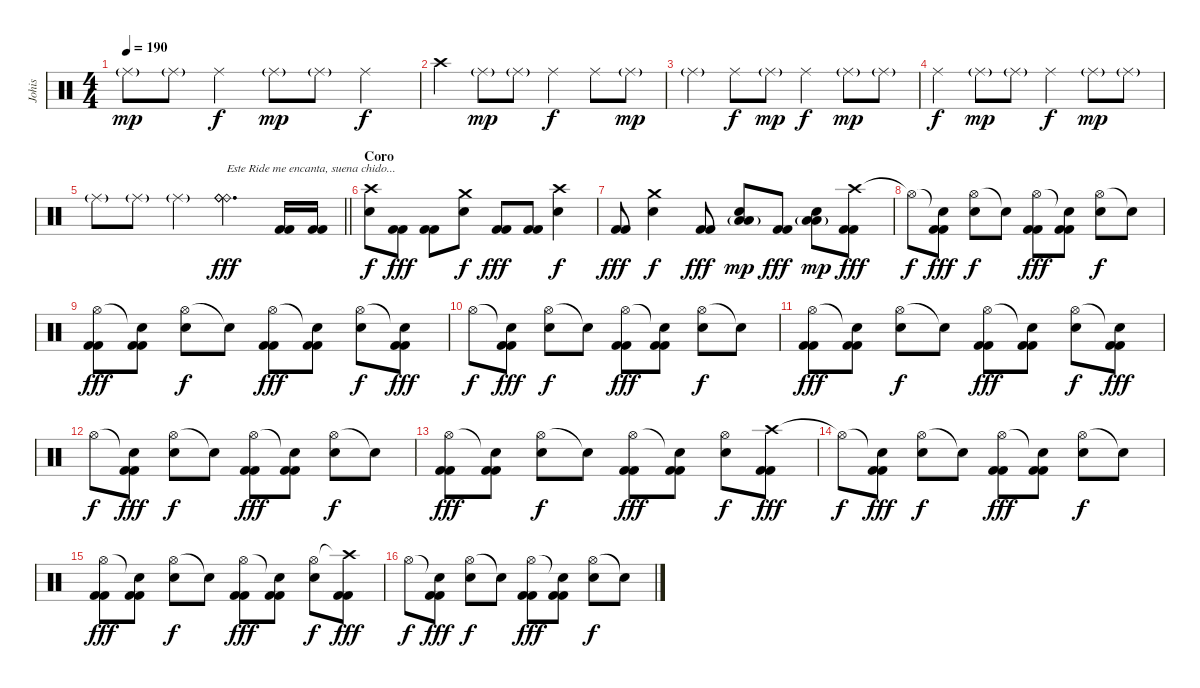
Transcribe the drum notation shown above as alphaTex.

\track ("Johis" "Johis") {instrument percussion}
\staff {score}
\articulation defaults
\ts (4 4)
\tempo 190
\clef neutral
\ks c "Ride (middle)"{g}.8{dy mp} "Ride (middle)"{g}.8 "Ride (middle)".4{dy f} "Ride (middle)"{g}.8{dy mp} "Ride (middle)"{g}.8 "Ride (middle)".4{dy f}
|
"Crash high (hit)".4 "Ride (middle)"{g}.8{dy mp} "Ride (middle)"{g}.8 "Ride (middle)".4{dy f} "Ride (middle)".8 "Ride (middle)"{g}.8{dy mp} |
"Ride (middle)"{g}.4 "Ride (middle)".8{dy f} "Ride (middle)"{g}.8{dy mp} "Ride (middle)".4{dy f} "Ride (middle)"{g}.8{dy mp} "Ride (middle)"{g}.8 |
"Ride (middle)".4{dy f} "Ride (middle)"{g}.8{dy mp} "Ride (middle)"{g}.8 "Ride (middle)".4{dy f} "Ride (middle)"{g}.8{dy mp} "Ride (middle)"{g}.8 |
\barLineRight lightlight "Ride (middle)"{g}.8 "Ride (middle)"{g}.8 "Ride (middle)"{g}.4
("Ride (bell)" "Ride (bell)" "Ride (bell)").4{d txt "Este Ride me encanta, suena chido..." dy fff} ("Kick (hit) 2" "Kick (hit) 2").16 ("Kick (hit) 2" "Kick (hit) 2").16 |
\section ("" "Coro")
("Crash high (hit)" "Electric Snare (hit)").8{dy f} ("Kick (hit) 2" "Kick (hit) 2").8{dy fff} ("Kick (hit) 2" "Kick (hit) 2").8 ("Crash medium (hit)" "Electric Snare (hit)").8{dy f} ("Kick (hit) 2" "Kick (hit) 2").8{dy fff} ("Kick (hit) 2" "Kick (hit) 2").8 ("Crash high (hit)" "Electric Snare (hit)").4{dy f} |
("Kick (hit) 2" "Kick (hit) 2").8{dy fff} ("Crash medium (hit)" "Electric Snare (hit)").4{dy f} ("Kick (hit) 2" "Kick (hit) 2").8{dy fff} ("Low Tom (hit)"{g} "Electric Snare (hit)" "Low Floor Tom (hit)").8{dy mp} ("Kick (hit) 2" "Kick (hit) 2").8{dy fff} ("Low Tom (hit)"{g} "Electric Snare (hit)" "Low Floor Tom (hit)").8{dy mp} ("Crash high (hit)" "Kick (hit) 2" "Kick (hit) 2").8{dy fff} |
"Hi-Hat (open)"{t}.8{dy f} ("Snare (hit)"{t} "Kick (hit) 2" "Kick (hit) 2").8{dy fff} ("Hi-Hat (open)" "Electric Snare (hit)").8{dy f} "Snare (hit)"{t}.8 ("Hi-Hat (open)" "Kick (hit) 2" "Kick (hit) 2").8{dy fff} ("Snare (hit)"{t} "Kick (hit) 2" "Kick (hit) 2").8 ("Hi-Hat (open)" "Electric Snare (hit)").8{dy f} "Snare (hit)"{t}.8 |
("Hi-Hat (open)" "Kick (hit) 2" "Kick (hit) 2").8{dy fff} ("Snare (hit)"{t} "Kick (hit) 2" "Kick (hit) 2").8 ("Hi-Hat (open)" "Electric Snare (hit)").8{dy f} "Snare (hit)"{t}.8 ("Hi-Hat (open)" "Kick (hit) 2" "Kick (hit) 2").8{dy fff} ("Snare (hit)"{t} "Kick (hit) 2" "Kick (hit) 2").8 ("Hi-Hat (open)" "Electric Snare (hit)").8{dy f} ("Snare (hit)"{t} "Kick (hit) 2" "Kick (hit) 2").8{dy fff} |
"Hi-Hat (open)".8{dy f} ("Snare (hit)"{t} "Kick (hit) 2" "Kick (hit) 2").8{dy fff} ("Hi-Hat (open)" "Electric Snare (hit)").8{dy f} "Snare (hit)"{t}.8 ("Hi-Hat (open)" "Kick (hit) 2" "Kick (hit) 2").8{dy fff} ("Snare (hit)"{t} "Kick (hit) 2" "Kick (hit) 2").8 ("Hi-Hat (open)" "Electric Snare (hit)").8{dy f} "Snare (hit)"{t}.8 |
("Hi-Hat (open)" "Kick (hit) 2" "Kick (hit) 2").8{dy fff} ("Snare (hit)"{t} "Kick (hit) 2" "Kick (hit) 2").8 ("Hi-Hat (open)" "Electric Snare (hit)").8{dy f} "Snare (hit)"{t}.8 ("Hi-Hat (open)" "Kick (hit) 2" "Kick (hit) 2").8{dy fff} ("Snare (hit)"{t} "Kick (hit) 2" "Kick (hit) 2").8 ("Hi-Hat (open)" "Electric Snare (hit)").8{dy f} ("Snare (hit)"{t} "Kick (hit) 2" "Kick (hit) 2").8{dy fff} |
"Hi-Hat (open)".8{dy f} ("Snare (hit)"{t} "Kick (hit) 2" "Kick (hit) 2").8{dy fff} ("Hi-Hat (open)" "Electric Snare (hit)").8{dy f} "Snare (hit)"{t}.8 ("Hi-Hat (open)" "Kick (hit) 2" "Kick (hit) 2").8{dy fff} ("Snare (hit)"{t} "Kick (hit) 2" "Kick (hit) 2").8 ("Hi-Hat (open)" "Electric Snare (hit)").8{dy f} "Snare (hit)"{t}.8 |
("Hi-Hat (open)" "Kick (hit) 2" "Kick (hit) 2").8{dy fff} ("Snare (hit)"{t} "Kick (hit) 2" "Kick (hit) 2").8 ("Hi-Hat (open)" "Electric Snare (hit)").8{dy f} "Snare (hit)"{t}.8 ("Hi-Hat (open)" "Kick (hit) 2" "Kick (hit) 2").8{dy fff} ("Snare (hit)"{t} "Kick (hit) 2" "Kick (hit) 2").8 ("Hi-Hat (open)" "Electric Snare (hit)").8{dy f} ("Crash high (hit)" "Kick (hit) 2" "Kick (hit) 2").8{dy fff} |
"Hi-Hat (open)"{t}.8{dy f} ("Snare (hit)"{t} "Kick (hit) 2" "Kick (hit) 2").8{dy fff} ("Hi-Hat (open)" "Electric Snare (hit)").8{dy f} "Snare (hit)"{t}.8 ("Hi-Hat (open)" "Kick (hit) 2" "Kick (hit) 2").8{dy fff} ("Snare (hit)"{t} "Kick (hit) 2" "Kick (hit) 2").8 ("Hi-Hat (open)" "Electric Snare (hit)").8{dy f} "Snare (hit)"{t}.8 |
("Hi-Hat (open)" "Kick (hit) 2" "Kick (hit) 2").8{dy fff} ("Snare (hit)"{t} "Kick (hit) 2" "Kick (hit) 2").8 ("Hi-Hat (open)" "Electric Snare (hit)").8{dy f} "Snare (hit)"{t}.8 ("Hi-Hat (open)" "Kick (hit) 2" "Kick (hit) 2").8{dy fff} ("Snare (hit)"{t} "Kick (hit) 2" "Kick (hit) 2").8 ("Hi-Hat (open)" "Electric Snare (hit)").8{dy f} ("Crash high (hit)"{t} "Kick (hit) 2" "Kick (hit) 2").8{dy fff} |
"Hi-Hat (open)".8{dy f} ("Snare (hit)"{t} "Kick (hit) 2" "Kick (hit) 2").8{dy fff} ("Hi-Hat (open)" "Electric Snare (hit)").8{dy f} "Snare (hit)"{t}.8 ("Hi-Hat (open)" "Kick (hit) 2" "Kick (hit) 2").8{dy fff} ("Snare (hit)"{t} "Kick (hit) 2" "Kick (hit) 2").8 ("Hi-Hat (open)" "Electric Snare (hit)").8{dy f} "Snare (hit)"{t}.8
